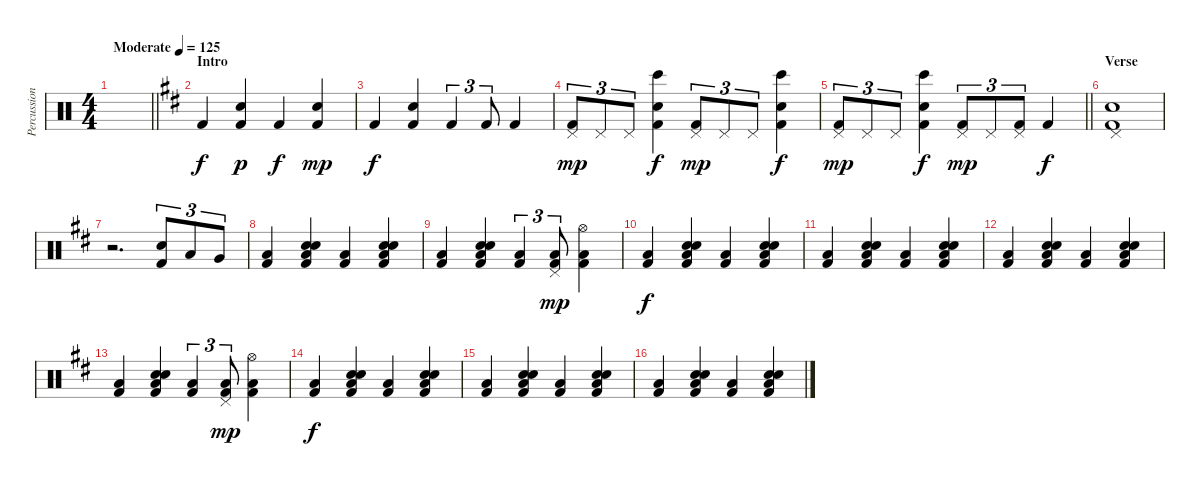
\track ("Percussion" "Percussion") {instrument percussion}
\staff {score}
\articulation defaults
\ts (4 4)
\tempo (125 "Moderate")
\clef neutral
\barLineRight lightlight
\ks c
|
\section ("" "Intro")
\ks bminor "Kick (hit) 2".4{volume 9}
("Hand Clap (hit)" "Kick (hit) 2").4{dy p} "Kick (hit) 2".4{dy f} ("Hand Clap (hit)" "Kick (hit) 2").4{dy mp} |
"Kick (hit) 2".4{dy f} ("Hand Clap (hit)" "Kick (hit) 2").4 "Kick (hit) 2".4{tu (3 2)} "Kick (hit) 2".8{tu (3 2)} "Kick (hit) 2".4 |
("Pedal Hi-Hat (hit)" "Kick (hit) 2").8{tu (3 2) dy mp volume 13} "Pedal Hi-Hat (hit)".8{tu (3 2)} "Pedal Hi-Hat (hit)".8{tu (3 2)} ("Bongo High (hit)" "Hand Clap (hit)" "Kick (hit) 2").4{dy f} ("Pedal Hi-Hat (hit)" "Kick (hit) 2").8{tu (3 2) dy mp} "Pedal Hi-Hat (hit)".8{tu (3 2)} "Pedal Hi-Hat (hit)".8{tu (3 2)} ("Bongo High (hit)" "Hand Clap (hit)" "Kick (hit) 2").4{dy f} |
\barLineRight lightlight
("Pedal Hi-Hat (hit)" "Kick (hit) 2").8{tu (3 2) dy mp} "Pedal Hi-Hat (hit)".8{tu (3 2)} "Pedal Hi-Hat (hit)".8{tu (3 2)} ("Bongo High (hit)" "Hand Clap (hit)" "Kick (hit) 2").4{dy f} ("Pedal Hi-Hat (hit)" "Kick (hit) 2").8{tu (3 2) dy mp} "Pedal Hi-Hat (hit)".8{tu (3 2)} ("Pedal Hi-Hat (hit)" "Kick (hit) 2").8{tu (3 2)} "Kick (hit) 2".4{dy f} |
\section ("" "Verse")
("Pedal Hi-Hat (hit)" "Electric Snare (hit)" "Kick (hit) 2").1 |
r.2{d} ("Electric Snare (hit)" "Kick (hit) 2").8{tu (3 2)} "Low Tom (hit)".8{tu (3 2)} "Very Low Tom (hit)".8{tu (3 2)} |
("Low Floor Tom (hit)" "Kick (hit) 2").4 ("Electric Snare (hit)" "Hand Clap (hit)" "Low Floor Tom (hit)" "Kick (hit) 2").4 ("Low Floor Tom (hit)" "Kick (hit) 2").4 ("Electric Snare (hit)" "Hand Clap (hit)" "Low Floor Tom (hit)" "Kick (hit) 2").4 |
("Low Floor Tom (hit)" "Kick (hit) 2").4 ("Electric Snare (hit)" "Hand Clap (hit)" "Low Floor Tom (hit)" "Kick (hit) 2").4 ("Low Floor Tom (hit)" "Kick (hit) 2").4{tu (3 2)} ("Pedal Hi-Hat (hit)" "Low Floor Tom (hit)" "Kick (hit) 2").8{tu (3 2) dy mp} ("Hi-Hat (open)" "Low Floor Tom (hit)" "Kick (hit) 2").4 |
("Low Floor Tom (hit)" "Kick (hit) 2").4{dy f} ("Electric Snare (hit)" "Hand Clap (hit)" "Low Floor Tom (hit)" "Kick (hit) 2").4 ("Low Floor Tom (hit)" "Kick (hit) 2").4 ("Electric Snare (hit)" "Hand Clap (hit)" "Low Floor Tom (hit)" "Kick (hit) 2").4 |
("Low Floor Tom (hit)" "Kick (hit) 2").4 ("Electric Snare (hit)" "Hand Clap (hit)" "Low Floor Tom (hit)" "Kick (hit) 2").4 ("Low Floor Tom (hit)" "Kick (hit) 2").4 ("Electric Snare (hit)" "Hand Clap (hit)" "Low Floor Tom (hit)" "Kick (hit) 2").4 |
("Low Floor Tom (hit)" "Kick (hit) 2").4 ("Electric Snare (hit)" "Hand Clap (hit)" "Low Floor Tom (hit)" "Kick (hit) 2").4 ("Low Floor Tom (hit)" "Kick (hit) 2").4 ("Electric Snare (hit)" "Hand Clap (hit)" "Low Floor Tom (hit)" "Kick (hit) 2").4 |
("Low Floor Tom (hit)" "Kick (hit) 2").4 ("Electric Snare (hit)" "Hand Clap (hit)" "Low Floor Tom (hit)" "Kick (hit) 2").4 ("Low Floor Tom (hit)" "Kick (hit) 2").4{tu (3 2)} ("Pedal Hi-Hat (hit)" "Low Floor Tom (hit)" "Kick (hit) 2").8{tu (3 2) dy mp} ("Hi-Hat (open)" "Low Floor Tom (hit)" "Kick (hit) 2").4 |
("Low Floor Tom (hit)" "Kick (hit) 2").4{dy f} ("Electric Snare (hit)" "Hand Clap (hit)" "Low Floor Tom (hit)" "Kick (hit) 2").4 ("Low Floor Tom (hit)" "Kick (hit) 2").4 ("Electric Snare (hit)" "Hand Clap (hit)" "Low Floor Tom (hit)" "Kick (hit) 2").4 |
("Low Floor Tom (hit)" "Kick (hit) 2").4 ("Electric Snare (hit)" "Hand Clap (hit)" "Low Floor Tom (hit)" "Kick (hit) 2").4 ("Low Floor Tom (hit)" "Kick (hit) 2").4 ("Electric Snare (hit)" "Hand Clap (hit)" "Low Floor Tom (hit)" "Kick (hit) 2").4 |
("Low Floor Tom (hit)" "Kick (hit) 2").4 ("Electric Snare (hit)" "Hand Clap (hit)" "Low Floor Tom (hit)" "Kick (hit) 2").4 ("Low Floor Tom (hit)" "Kick (hit) 2").4 ("Electric Snare (hit)" "Hand Clap (hit)" "Low Floor Tom (hit)" "Kick (hit) 2").4
